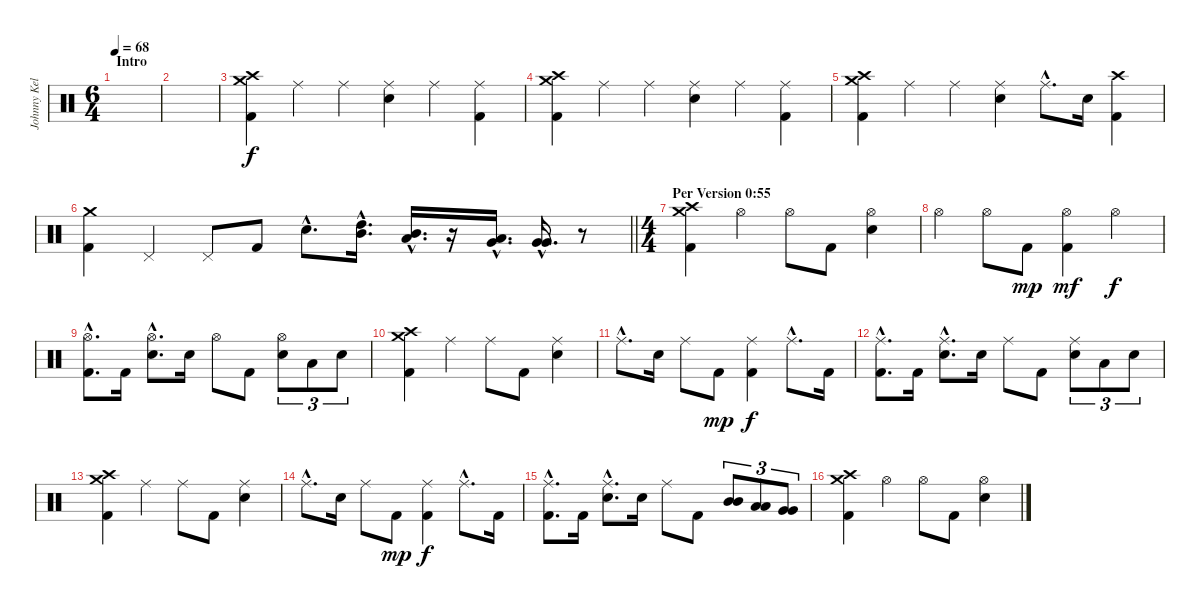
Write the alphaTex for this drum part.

\track ("Johnny Kelly" "Johnny Kel") {instrument percussion}
\staff {score}
\articulation defaults
\ts (6 4)
\section ("" "Intro")
\tempo 68
\clef neutral
\ks c
|
|
("Crash high (hit)" "Crash medium (hit)" "Kick (hit) 2").4 "Ride (middle)".4 "Ride (middle)".4 ("Ride (middle)" "Electric Snare (hit)").4 "Ride (middle)".4 ("Ride (middle)" "Kick (hit) 2").4 |
("Crash high (hit)" "Crash medium (hit)" "Kick (hit) 2").4 "Ride (middle)".4 "Ride (middle)".4 ("Ride (middle)" "Electric Snare (hit)").4 "Ride (middle)".4 ("Ride (middle)" "Kick (hit) 2").4 |
("Crash high (hit)" "Crash medium (hit)" "Kick (hit) 2").4 "Ride (middle)".4 "Ride (middle)".4 ("Ride (middle)" "Electric Snare (hit)").4 "Ride (middle)"{hac}.8{d} "Electric Snare (hit)".16 ("Crash high (hit)" "Kick (hit) 2").4 |
\barLineRight lightlight
("Crash medium (hit)" "Kick (hit) 2").4 "Pedal Hi-Hat (hit)".4 "Pedal Hi-Hat (hit)".8 "Kick (hit) 2".8 "Electric Snare (hit)"{hac}.8{d} ("High Tom (hit)"{hac} "Mid Tom (hit)"{hac}).16{d} ("Mid Tom (hit)"{hac} "Low Tom (hit)"{hac}).16{d} r.16 ("Low Tom (hit)"{hac} "Very Low Tom (hit)"{hac}).16{d} ("Very Low Tom (hit)"{hac} "Very Low Tom (hit)"{hac}).16{d} r.8 |
\ts (4 4)
\section ("" "Per Version 0:55")
("Crash high (hit)" "Crash medium (hit)" "Kick (hit) 2").4 "Hi-Hat (open)".4 "Hi-Hat (open)".8 "Kick (hit) 2".8 ("Hi-Hat (open)" "Electric Snare (hit)").4 |
"Hi-Hat (open)".4 "Hi-Hat (open)".8 "Kick (hit) 2".8{dy mp} ("Hi-Hat (open)" "Kick (hit) 2").4{dy mf} "Hi-Hat (open)".4{dy f} |
("Hi-Hat (open)"{hac} "Kick (hit) 2"{hac}).8{d} "Kick (hit) 2".16 ("Hi-Hat (open)"{hac} "Electric Snare (hit)"{hac}).8{d} "Electric Snare (hit)".16 "Hi-Hat (open)".8 "Kick (hit) 2".8 ("Hi-Hat (open)" "Electric Snare (hit)").8{tu (3 2)} "Low Floor Tom (hit)".8{tu (3 2)} "Electric Snare (hit)".8{tu (3 2)} |
("Crash high (hit)" "Crash medium (hit)" "Kick (hit) 2").4 "Ride (middle)".4 "Ride (middle)".8 "Kick (hit) 2".8 ("Ride (middle)" "Electric Snare (hit)").4 |
"Ride (middle)"{hac}.8{d} "Electric Snare (hit)".16 "Ride (middle)".8 "Kick (hit) 2".8{dy mp} ("Ride (middle)" "Kick (hit) 2").4{dy f} "Ride (middle)"{hac}.8{d} "Kick (hit) 2".16 |
("Ride (middle)"{hac} "Kick (hit) 2"{hac}).8{d} "Kick (hit) 2".16 ("Ride (middle)"{hac} "Electric Snare (hit)"{hac}).8{d} "Electric Snare (hit)".16 "Ride (middle)".8 "Kick (hit) 2".8 ("Ride (middle)" "Electric Snare (hit)").8{tu (3 2)} "Low Floor Tom (hit)".8{tu (3 2)} "Electric Snare (hit)".8{tu (3 2)} |
("Crash high (hit)" "Crash medium (hit)" "Kick (hit) 2").4 "Ride (middle)".4 "Ride (middle)".8 "Kick (hit) 2".8 ("Ride (middle)" "Electric Snare (hit)").4 |
"Ride (middle)"{hac}.8{d} "Electric Snare (hit)".16 "Ride (middle)".8 "Kick (hit) 2".8{dy mp} ("Ride (middle)" "Kick (hit) 2").4{dy f} "Ride (middle)"{hac}.8{d} "Kick (hit) 2".16 |
("Ride (middle)"{hac} "Kick (hit) 2"{hac}).8{d} "Kick (hit) 2".16 ("Ride (middle)"{hac} "Electric Snare (hit)"{hac}).8{d} "Electric Snare (hit)".16 "Ride (middle)".8 "Kick (hit) 2".8 ("Mid Tom (hit)" "Mid Tom (hit)").8{tu (3 2)} ("Low Tom (hit)" "Low Tom (hit)").8{tu (3 2)} ("Very Low Tom (hit)" "Very Low Tom (hit)").8{tu (3 2)} |
("Crash high (hit)" "Crash medium (hit)" "Kick (hit) 2").4 "Hi-Hat (open)".4 "Hi-Hat (open)".8 "Kick (hit) 2".8 ("Hi-Hat (open)" "Electric Snare (hit)").4
